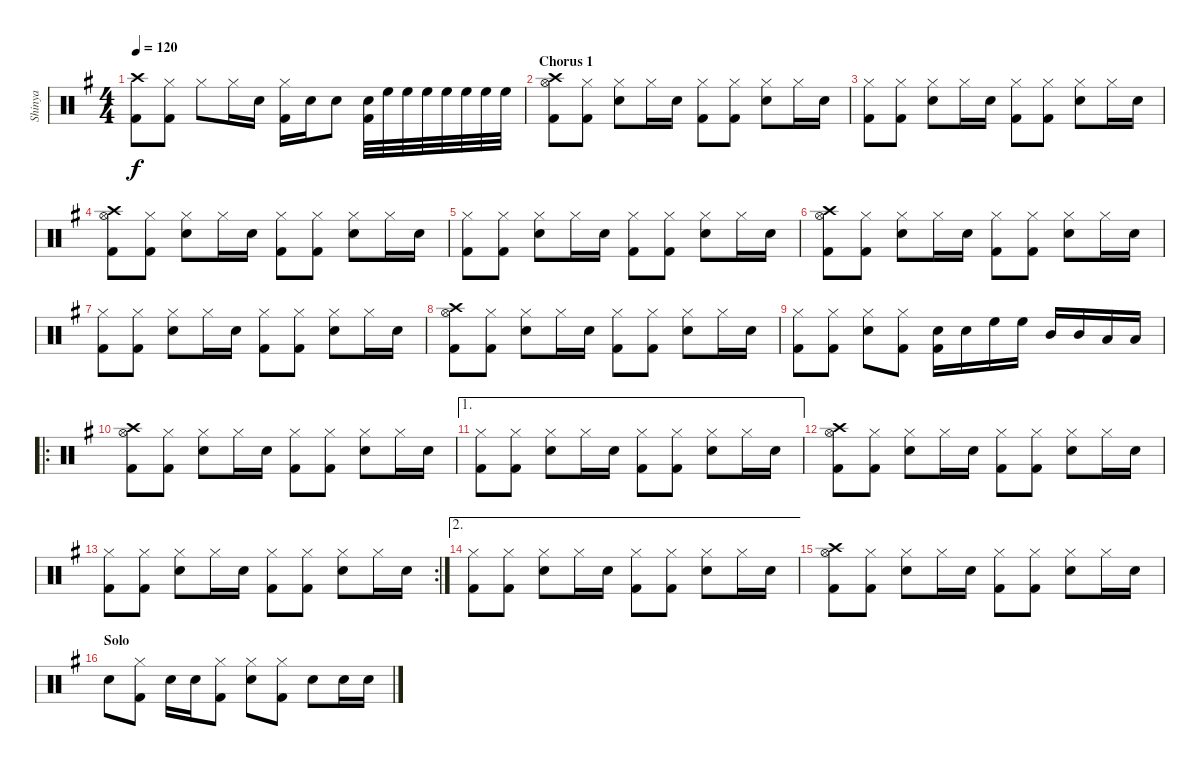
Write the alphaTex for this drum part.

\track ("Shinya" "Shinya") {instrument percussion}
\staff {score}
\articulation defaults
\ts (4 4)
\tempo 120
\clef neutral
\ks g
("Crash high (hit)" "Kick (hit) 2").8{dy f} ("Hi-Hat (closed)" "Kick (hit) 2").8 "Hi-Hat (closed)".8 "Hi-Hat (closed)".16 "Snare (hit) 2".16 ("Hi-Hat (closed)" "Kick (hit) 2").16 "Snare (hit) 2".16 "Snare (hit) 2".8 ("Snare (hit) 2" "Kick (hit) 2").32 "High Floor Tom (hit)".32 "High Floor Tom (hit)".32 "High Floor Tom (hit)".32 "High Floor Tom (hit)".32 "High Floor Tom (hit)".32 "High Floor Tom (hit)".32 "High Floor Tom (hit)".32 |
\section ("" "Chorus 1")
("Crash high (hit)" "Hi-Hat (open)" "Kick (hit) 2").8 ("Hi-Hat (closed)" "Kick (hit) 2").8 ("Hi-Hat (closed)" "Snare (hit) 2").8 "Hi-Hat (closed)".16 "Snare (hit) 2".16 ("Hi-Hat (closed)" "Kick (hit) 2").8 ("Hi-Hat (closed)" "Kick (hit) 2").8 ("Hi-Hat (closed)" "Snare (hit) 2").8 "Hi-Hat (closed)".16 "Snare (hit) 2".16 |
("Hi-Hat (closed)" "Kick (hit) 2").8 ("Hi-Hat (closed)" "Kick (hit) 2").8 ("Hi-Hat (closed)" "Snare (hit) 2").8 "Hi-Hat (closed)".16 "Snare (hit) 2".16 ("Hi-Hat (closed)" "Kick (hit) 2").8 ("Hi-Hat (closed)" "Kick (hit) 2").8 ("Hi-Hat (closed)" "Snare (hit) 2").8 "Hi-Hat (closed)".16 "Snare (hit) 2".16 |
("Crash high (hit)" "Hi-Hat (open)" "Kick (hit) 2").8 ("Hi-Hat (closed)" "Kick (hit) 2").8 ("Hi-Hat (closed)" "Snare (hit) 2").8 "Hi-Hat (closed)".16 "Snare (hit) 2".16 ("Hi-Hat (closed)" "Kick (hit) 2").8 ("Hi-Hat (closed)" "Kick (hit) 2").8 ("Hi-Hat (closed)" "Snare (hit) 2").8 "Hi-Hat (closed)".16 "Snare (hit) 2".16 |
("Hi-Hat (closed)" "Kick (hit) 2").8 ("Hi-Hat (closed)" "Kick (hit) 2").8 ("Hi-Hat (closed)" "Snare (hit) 2").8 "Hi-Hat (closed)".16 "Snare (hit) 2".16 ("Hi-Hat (closed)" "Kick (hit) 2").8 ("Hi-Hat (closed)" "Kick (hit) 2").8 ("Hi-Hat (closed)" "Snare (hit) 2").8 "Hi-Hat (closed)".16 "Snare (hit) 2".16 |
("Crash high (hit)" "Hi-Hat (open)" "Kick (hit) 2").8 ("Hi-Hat (closed)" "Kick (hit) 2").8 ("Hi-Hat (closed)" "Snare (hit) 2").8 "Hi-Hat (closed)".16 "Snare (hit) 2".16 ("Hi-Hat (closed)" "Kick (hit) 2").8 ("Hi-Hat (closed)" "Kick (hit) 2").8 ("Hi-Hat (closed)" "Snare (hit) 2").8 "Hi-Hat (closed)".16 "Snare (hit) 2".16 |
("Hi-Hat (closed)" "Kick (hit) 2").8 ("Hi-Hat (closed)" "Kick (hit) 2").8 ("Hi-Hat (closed)" "Snare (hit) 2").8 "Hi-Hat (closed)".16 "Snare (hit) 2".16 ("Hi-Hat (closed)" "Kick (hit) 2").8 ("Hi-Hat (closed)" "Kick (hit) 2").8 ("Hi-Hat (closed)" "Snare (hit) 2").8 "Hi-Hat (closed)".16 "Snare (hit) 2".16 |
("Crash high (hit)" "Hi-Hat (open)" "Kick (hit) 2").8 ("Hi-Hat (closed)" "Kick (hit) 2").8 ("Hi-Hat (closed)" "Snare (hit) 2").8 "Hi-Hat (closed)".16 "Snare (hit) 2".16 ("Hi-Hat (closed)" "Kick (hit) 2").8 ("Hi-Hat (closed)" "Kick (hit) 2").8 ("Hi-Hat (closed)" "Snare (hit) 2").8 "Hi-Hat (closed)".16 "Snare (hit) 2".16 |
("Hi-Hat (closed)" "Kick (hit) 2").8 ("Hi-Hat (closed)" "Kick (hit) 2").8 ("Hi-Hat (closed)" "Snare (hit) 2").8 ("Hi-Hat (closed)" "Kick (hit) 2").8 ("Snare (hit) 2" "Kick (hit) 2").16 "Snare (hit) 2".16 "High Floor Tom (hit)".16 "High Floor Tom (hit)".16 "Mid Tom (hit)".16 "Mid Tom (hit)".16 "Low Floor Tom (hit)".16 "Low Floor Tom (hit)".16 |
\ro
("Crash high (hit)" "Hi-Hat (open)" "Kick (hit) 2").8 ("Hi-Hat (closed)" "Kick (hit) 2").8 ("Hi-Hat (closed)" "Snare (hit) 2").8 "Hi-Hat (closed)".16 "Snare (hit) 2".16 ("Hi-Hat (closed)" "Kick (hit) 2").8 ("Hi-Hat (closed)" "Kick (hit) 2").8 ("Hi-Hat (closed)" "Snare (hit) 2").8 "Hi-Hat (closed)".16 "Snare (hit) 2".16 |
\ae 1
("Hi-Hat (closed)" "Kick (hit) 2").8 ("Hi-Hat (closed)" "Kick (hit) 2").8 ("Hi-Hat (closed)" "Snare (hit) 2").8 "Hi-Hat (closed)".16 "Snare (hit) 2".16 ("Hi-Hat (closed)" "Kick (hit) 2").8 ("Hi-Hat (closed)" "Kick (hit) 2").8 ("Hi-Hat (closed)" "Snare (hit) 2").8 "Hi-Hat (closed)".16 "Snare (hit) 2".16 |
("Crash high (hit)" "Hi-Hat (open)" "Kick (hit) 2").8 ("Hi-Hat (closed)" "Kick (hit) 2").8 ("Hi-Hat (closed)" "Snare (hit) 2").8 "Hi-Hat (closed)".16 "Snare (hit) 2".16 ("Hi-Hat (closed)" "Kick (hit) 2").8 ("Hi-Hat (closed)" "Kick (hit) 2").8 ("Hi-Hat (closed)" "Snare (hit) 2").8 "Hi-Hat (closed)".16 "Snare (hit) 2".16 |
\rc 2
("Hi-Hat (closed)" "Kick (hit) 2").8 ("Hi-Hat (closed)" "Kick (hit) 2").8 ("Hi-Hat (closed)" "Snare (hit) 2").8 "Hi-Hat (closed)".16 "Snare (hit) 2".16 ("Hi-Hat (closed)" "Kick (hit) 2").8 ("Hi-Hat (closed)" "Kick (hit) 2").8 ("Hi-Hat (closed)" "Snare (hit) 2").8 "Hi-Hat (closed)".16 "Snare (hit) 2".16 |
\ae 2
("Hi-Hat (closed)" "Kick (hit) 2").8 ("Hi-Hat (closed)" "Kick (hit) 2").8 ("Hi-Hat (closed)" "Snare (hit) 2").8 "Hi-Hat (closed)".16 "Snare (hit) 2".16 ("Hi-Hat (closed)" "Kick (hit) 2").8 ("Hi-Hat (closed)" "Kick (hit) 2").8 ("Hi-Hat (closed)" "Snare (hit) 2").8 "Hi-Hat (closed)".16 "Snare (hit) 2".16 |
("Crash high (hit)" "Hi-Hat (open)" "Kick (hit) 2").8 ("Hi-Hat (closed)" "Kick (hit) 2").8 ("Hi-Hat (closed)" "Snare (hit) 2").8 "Hi-Hat (closed)".16 "Snare (hit) 2".16 ("Hi-Hat (closed)" "Kick (hit) 2").8 ("Hi-Hat (closed)" "Kick (hit) 2").8 ("Hi-Hat (closed)" "Snare (hit) 2").8 "Hi-Hat (closed)".16 "Snare (hit) 2".16 |
\section ("" "Solo")
"Snare (hit) 2".8 ("Hi-Hat (closed)" "Kick (hit) 2").8 "Snare (hit) 2".16 "Snare (hit) 2".16 ("Hi-Hat (closed)" "Kick (hit) 2").8 ("Hi-Hat (closed)" "Snare (hit) 2").8 ("Hi-Hat (closed)" "Kick (hit) 2").8 "Snare (hit) 2".8 "Snare (hit) 2".16 "Snare (hit) 2".16
